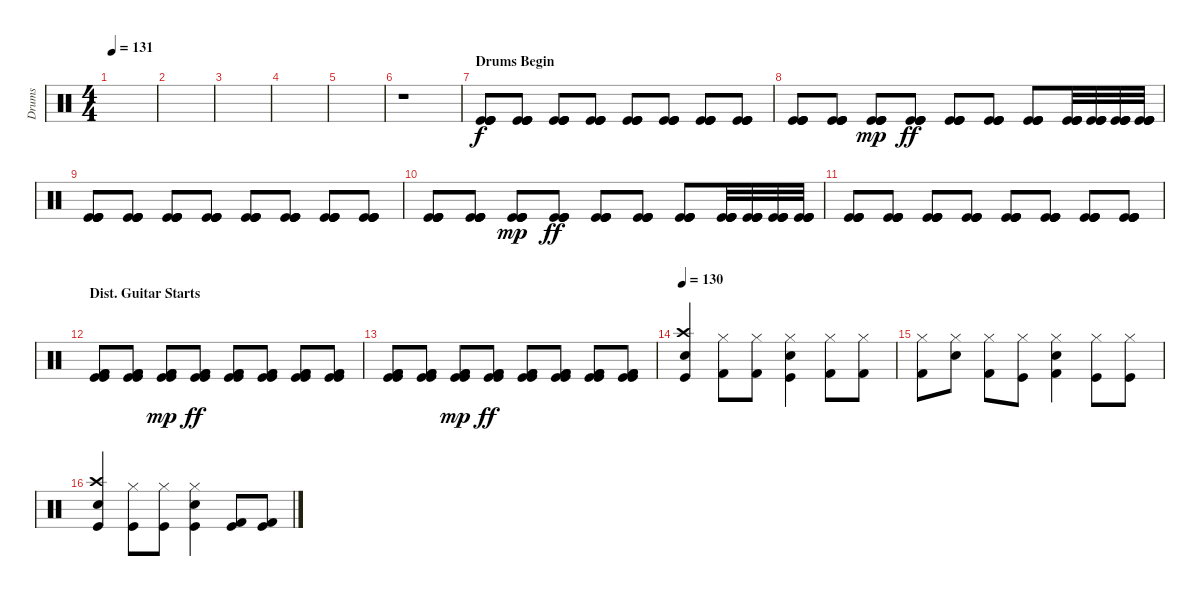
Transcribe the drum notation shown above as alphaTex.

\track ("Drums" "Drums") {instrument percussion}
\staff {score}
\articulation defaults
\ts (4 4)
\tempo 131
\clef neutral
\ks c
|
|
|
|
|
r.1{volume 4} |
\section ("" "Drums Begin")
("Kick (hit)" "Kick (hit)" "Kick (hit)" "Kick (hit)").8{volume 10} ("Kick (hit)" "Kick (hit)" "Kick (hit)" "Kick (hit)").8 ("Kick (hit)" "Kick (hit)" "Kick (hit)" "Kick (hit)").8 ("Kick (hit)" "Kick (hit)" "Kick (hit)" "Kick (hit)").8 ("Kick (hit)" "Kick (hit)" "Kick (hit)" "Kick (hit)").8 ("Kick (hit)" "Kick (hit)" "Kick (hit)" "Kick (hit)").8 ("Kick (hit)" "Kick (hit)" "Kick (hit)" "Kick (hit)").8 ("Kick (hit)" "Kick (hit)" "Kick (hit)" "Kick (hit)").8 |
("Kick (hit)" "Kick (hit)" "Kick (hit)" "Kick (hit)").8 ("Kick (hit)" "Kick (hit)" "Kick (hit)" "Kick (hit)").8 ("Kick (hit)" "Kick (hit)" "Kick (hit)" "Kick (hit)").8{dy mp} ("Kick (hit)" "Kick (hit)" "Kick (hit)" "Kick (hit)").8{dy ff} ("Kick (hit)" "Kick (hit)" "Kick (hit)" "Kick (hit)").8 ("Kick (hit)" "Kick (hit)" "Kick (hit)" "Kick (hit)").8 ("Kick (hit)" "Kick (hit)" "Kick (hit)" "Kick (hit)").8 ("Kick (hit)" "Kick (hit)" "Kick (hit)" "Kick (hit)").32 ("Kick (hit)" "Kick (hit)" "Kick (hit)" "Kick (hit)").32 ("Kick (hit)" "Kick (hit)" "Kick (hit)" "Kick (hit)").32 ("Kick (hit)" "Kick (hit)" "Kick (hit)" "Kick (hit)").32 |
("Kick (hit)" "Kick (hit)" "Kick (hit)" "Kick (hit)").8{volume 16} ("Kick (hit)" "Kick (hit)" "Kick (hit)" "Kick (hit)").8 ("Kick (hit)" "Kick (hit)" "Kick (hit)" "Kick (hit)").8 ("Kick (hit)" "Kick (hit)" "Kick (hit)" "Kick (hit)").8 ("Kick (hit)" "Kick (hit)" "Kick (hit)" "Kick (hit)").8 ("Kick (hit)" "Kick (hit)" "Kick (hit)" "Kick (hit)").8 ("Kick (hit)" "Kick (hit)" "Kick (hit)" "Kick (hit)").8 ("Kick (hit)" "Kick (hit)" "Kick (hit)" "Kick (hit)").8 |
("Kick (hit)" "Kick (hit)" "Kick (hit)" "Kick (hit)").8 ("Kick (hit)" "Kick (hit)" "Kick (hit)" "Kick (hit)").8 ("Kick (hit)" "Kick (hit)" "Kick (hit)" "Kick (hit)").8{dy mp} ("Kick (hit)" "Kick (hit)" "Kick (hit)" "Kick (hit)").8{dy ff} ("Kick (hit)" "Kick (hit)" "Kick (hit)" "Kick (hit)").8 ("Kick (hit)" "Kick (hit)" "Kick (hit)" "Kick (hit)").8 ("Kick (hit)" "Kick (hit)" "Kick (hit)" "Kick (hit)").8 ("Kick (hit)" "Kick (hit)" "Kick (hit)" "Kick (hit)").32 ("Kick (hit)" "Kick (hit)" "Kick (hit)" "Kick (hit)").32 ("Kick (hit)" "Kick (hit)" "Kick (hit)" "Kick (hit)").32 ("Kick (hit)" "Kick (hit)" "Kick (hit)" "Kick (hit)").32 |
("Kick (hit)" "Kick (hit)" "Kick (hit)" "Kick (hit)").8 ("Kick (hit)" "Kick (hit)" "Kick (hit)" "Kick (hit)").8 ("Kick (hit)" "Kick (hit)" "Kick (hit)" "Kick (hit)").8 ("Kick (hit)" "Kick (hit)" "Kick (hit)" "Kick (hit)").8 ("Kick (hit)" "Kick (hit)" "Kick (hit)" "Kick (hit)").8 ("Kick (hit)" "Kick (hit)" "Kick (hit)" "Kick (hit)").8 ("Kick (hit)" "Kick (hit)" "Kick (hit)" "Kick (hit)").8 ("Kick (hit)" "Kick (hit)" "Kick (hit)" "Kick (hit)").8 |
\section ("" "Dist. Guitar Starts")
("Kick (hit) 2" "Kick (hit) 2" "Kick (hit)" "Kick (hit)").8 ("Kick (hit) 2" "Kick (hit) 2" "Kick (hit)" "Kick (hit)").8 ("Kick (hit) 2" "Kick (hit) 2" "Kick (hit)" "Kick (hit)").8{dy mp} ("Kick (hit) 2" "Kick (hit) 2" "Kick (hit)" "Kick (hit)").8{dy ff} ("Kick (hit) 2" "Kick (hit) 2" "Kick (hit)" "Kick (hit)").8 ("Kick (hit) 2" "Kick (hit) 2" "Kick (hit)" "Kick (hit)").8 ("Kick (hit) 2" "Kick (hit) 2" "Kick (hit)" "Kick (hit)").8 ("Kick (hit) 2" "Kick (hit) 2" "Kick (hit)" "Kick (hit)").8 |
("Kick (hit) 2" "Kick (hit) 2" "Kick (hit)" "Kick (hit)").8 ("Kick (hit) 2" "Kick (hit) 2" "Kick (hit)" "Kick (hit)").8 ("Kick (hit) 2" "Kick (hit) 2" "Kick (hit)" "Kick (hit)").8{dy mp} ("Kick (hit) 2" "Kick (hit) 2" "Kick (hit)" "Kick (hit)").8{dy ff} ("Kick (hit) 2" "Kick (hit) 2" "Kick (hit)" "Kick (hit)").8 ("Kick (hit) 2" "Kick (hit) 2" "Kick (hit)" "Kick (hit)").8 ("Kick (hit) 2" "Kick (hit) 2" "Kick (hit)" "Kick (hit)").8 ("Kick (hit) 2" "Kick (hit) 2" "Kick (hit)" "Kick (hit)").8 |
\tempo 130
("Crash high (hit)" "Snare (hit) 2" "Kick (hit)").4 ("Hi-Hat (closed)" "Kick (hit) 2").8 ("Hi-Hat (closed)" "Kick (hit) 2").8 ("Hi-Hat (closed)" "Snare (hit) 2" "Kick (hit)").4 ("Hi-Hat (closed)" "Kick (hit) 2").8 ("Hi-Hat (closed)" "Kick (hit) 2").8 |
("Hi-Hat (closed)" "Kick (hit) 2").8 ("Hi-Hat (closed)" "Snare (hit) 2").8 ("Hi-Hat (closed)" "Kick (hit) 2").8 ("Hi-Hat (closed)" "Kick (hit)").8 ("Hi-Hat (closed)" "Kick (hit) 2" "Snare (hit) 2").4 ("Hi-Hat (closed)" "Kick (hit)").8 ("Hi-Hat (closed)" "Kick (hit)").8 |
("Crash high (hit)" "Snare (hit) 2" "Kick (hit)").4 ("Hi-Hat (closed)" "Kick (hit)").8 ("Hi-Hat (closed)" "Kick (hit)").8 ("Hi-Hat (closed)" "Snare (hit) 2" "Kick (hit)").4 ("Kick (hit) 2" "Kick (hit)").8 ("Kick (hit) 2" "Kick (hit)").8
